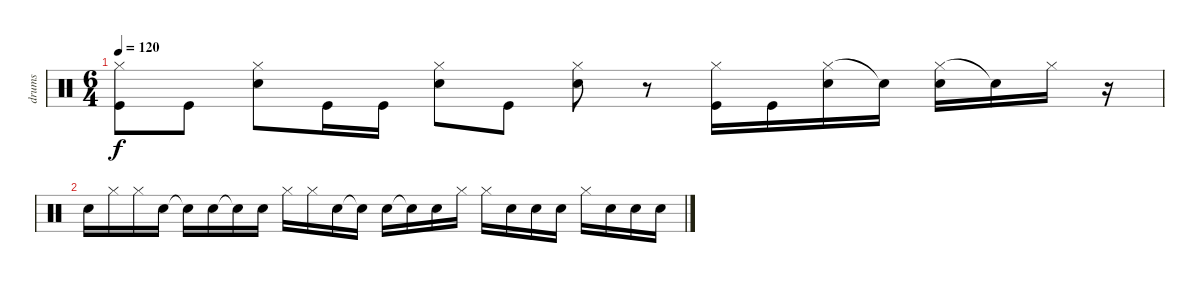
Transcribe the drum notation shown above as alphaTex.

\track ("drums" "drums") {instrument percussion}
\staff {score}
\articulation defaults
\ts (6 4)
\tempo 120
\clef neutral
\ks c
("Hi-Hat (closed)" "Kick (hit)").8{dy f} "Kick (hit)".8 ("Hi-Hat (closed)" "Electric Snare (hit)").8 "Kick (hit)".16 "Kick (hit)".16 ("Hi-Hat (closed)" "Electric Snare (hit)").8 "Kick (hit)".8 ("Hi-Hat (closed)" "Electric Snare (hit)").8 r.8 ("Hi-Hat (closed)" "Kick (hit)").16 "Kick (hit)".16 ("Hi-Hat (closed)" "Electric Snare (hit)").16 "Snare (hit)"{t}.16 ("Hi-Hat (closed)" "Electric Snare (hit)").16 "Snare (hit)"{t}.16 "Hi-Hat (closed)".16 r.16 |
"Electric Snare (hit)".16 "Hi-Hat (closed)".16 "Hi-Hat (closed)".16 "Electric Snare (hit)".16 "Snare (hit)"{t}.16 "Electric Snare (hit)".16 "Snare (hit)"{t}.16 "Electric Snare (hit)".16 "Hi-Hat (closed)".16 "Hi-Hat (closed)".16 "Electric Snare (hit)".16 "Snare (hit)"{t}.16 "Electric Snare (hit)".16 "Snare (hit)"{t}.16 "Electric Snare (hit)".16 "Hi-Hat (closed)".16 "Hi-Hat (closed)".16 "Electric Snare (hit)".16 "Electric Snare (hit)".16 "Electric Snare (hit)".16 "Hi-Hat (closed)".16 "Electric Snare (hit)".16 "Electric Snare (hit)".16 "Electric Snare (hit)".16
